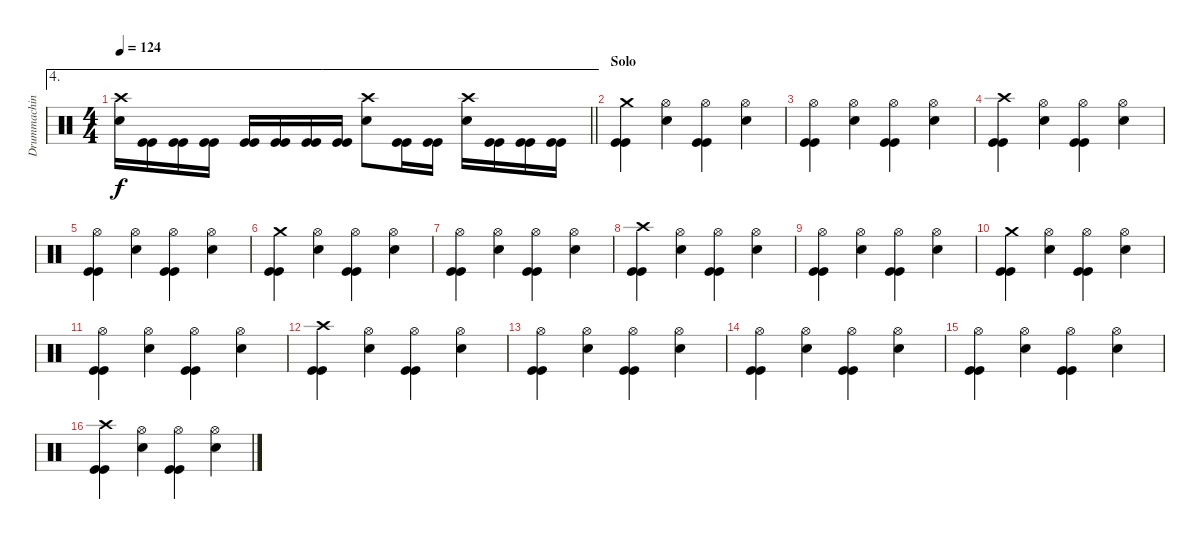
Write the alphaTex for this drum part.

\track ("Drummachine" "Drummachin") {instrument percussion}
\staff {score}
\articulation defaults
\ae 4
\ts (4 4)
\tempo 124
\clef neutral
\barLineRight lightlight
\ks c
("Crash high (hit)" "Snare (hit) 2").16{dy f} ("Kick (hit)" "Kick (hit)").16 ("Kick (hit)" "Kick (hit)").16 ("Kick (hit)" "Kick (hit)").16 ("Kick (hit)" "Kick (hit)").16 ("Kick (hit)" "Kick (hit)").16 ("Kick (hit)" "Kick (hit)").16 ("Kick (hit)" "Kick (hit)").16 ("Crash high (hit)" "Snare (hit) 2").8 ("Kick (hit)" "Kick (hit)").16 ("Kick (hit)" "Kick (hit)").16 ("Crash high (hit)" "Snare (hit) 2").16 ("Kick (hit)" "Kick (hit)").16 ("Kick (hit)" "Kick (hit)").16 ("Kick (hit)" "Kick (hit)").16 |
\section ("" "Solo")
("Crash medium (hit)" "Kick (hit)" "Kick (hit)").4 ("Hi-Hat (open)" "Snare (hit) 2").4 ("Hi-Hat (open)" "Kick (hit)" "Kick (hit)").4 ("Hi-Hat (open)" "Snare (hit) 2").4 |
("Hi-Hat (open)" "Kick (hit)" "Kick (hit)").4 ("Hi-Hat (open)" "Snare (hit) 2").4 ("Hi-Hat (open)" "Kick (hit)" "Kick (hit)").4 ("Hi-Hat (open)" "Snare (hit) 2").4 |
("Crash high (hit)" "Kick (hit)" "Kick (hit)").4 ("Hi-Hat (open)" "Snare (hit) 2").4 ("Hi-Hat (open)" "Kick (hit)" "Kick (hit)").4 ("Hi-Hat (open)" "Snare (hit) 2").4 |
("Hi-Hat (open)" "Kick (hit)" "Kick (hit)").4 ("Hi-Hat (open)" "Snare (hit) 2").4 ("Hi-Hat (open)" "Kick (hit)" "Kick (hit)").4 ("Hi-Hat (open)" "Snare (hit) 2").4 |
("Crash medium (hit)" "Kick (hit)" "Kick (hit)").4 ("Hi-Hat (open)" "Snare (hit) 2").4 ("Hi-Hat (open)" "Kick (hit)" "Kick (hit)").4 ("Hi-Hat (open)" "Snare (hit) 2").4 |
("Hi-Hat (open)" "Kick (hit)" "Kick (hit)").4 ("Hi-Hat (open)" "Snare (hit) 2").4 ("Hi-Hat (open)" "Kick (hit)" "Kick (hit)").4 ("Hi-Hat (open)" "Snare (hit) 2").4 |
("Crash high (hit)" "Kick (hit)" "Kick (hit)").4 ("Hi-Hat (open)" "Snare (hit) 2").4 ("Hi-Hat (open)" "Kick (hit)" "Kick (hit)").4 ("Hi-Hat (open)" "Snare (hit) 2").4 |
("Hi-Hat (open)" "Kick (hit)" "Kick (hit)").4 ("Hi-Hat (open)" "Snare (hit) 2").4 ("Hi-Hat (open)" "Kick (hit)" "Kick (hit)").4 ("Hi-Hat (open)" "Snare (hit) 2").4 |
("Crash medium (hit)" "Kick (hit)" "Kick (hit)").4 ("Hi-Hat (open)" "Snare (hit) 2").4 ("Hi-Hat (open)" "Kick (hit)" "Kick (hit)").4 ("Hi-Hat (open)" "Snare (hit) 2").4 |
("Hi-Hat (open)" "Kick (hit)" "Kick (hit)").4 ("Hi-Hat (open)" "Snare (hit) 2").4 ("Hi-Hat (open)" "Kick (hit)" "Kick (hit)").4 ("Hi-Hat (open)" "Snare (hit) 2").4 |
("Crash high (hit)" "Kick (hit)" "Kick (hit)").4 ("Hi-Hat (open)" "Snare (hit) 2").4 ("Hi-Hat (open)" "Kick (hit)" "Kick (hit)").4 ("Hi-Hat (open)" "Snare (hit) 2").4 |
("Hi-Hat (open)" "Kick (hit)" "Kick (hit)").4 ("Hi-Hat (open)" "Snare (hit) 2").4 ("Hi-Hat (open)" "Kick (hit)" "Kick (hit)").4 ("Hi-Hat (open)" "Snare (hit) 2").4 |
("Hi-Hat (open)" "Kick (hit)" "Kick (hit)").4 ("Hi-Hat (open)" "Snare (hit) 2").4 ("Hi-Hat (open)" "Kick (hit)" "Kick (hit)").4 ("Hi-Hat (open)" "Snare (hit) 2").4 |
("Hi-Hat (open)" "Kick (hit)" "Kick (hit)").4 ("Hi-Hat (open)" "Snare (hit) 2").4 ("Hi-Hat (open)" "Kick (hit)" "Kick (hit)").4 ("Hi-Hat (open)" "Snare (hit) 2").4 |
("Crash high (hit)" "Kick (hit)" "Kick (hit)").4 ("Hi-Hat (open)" "Snare (hit) 2").4 ("Hi-Hat (open)" "Kick (hit)" "Kick (hit)").4 ("Hi-Hat (open)" "Snare (hit) 2").4
